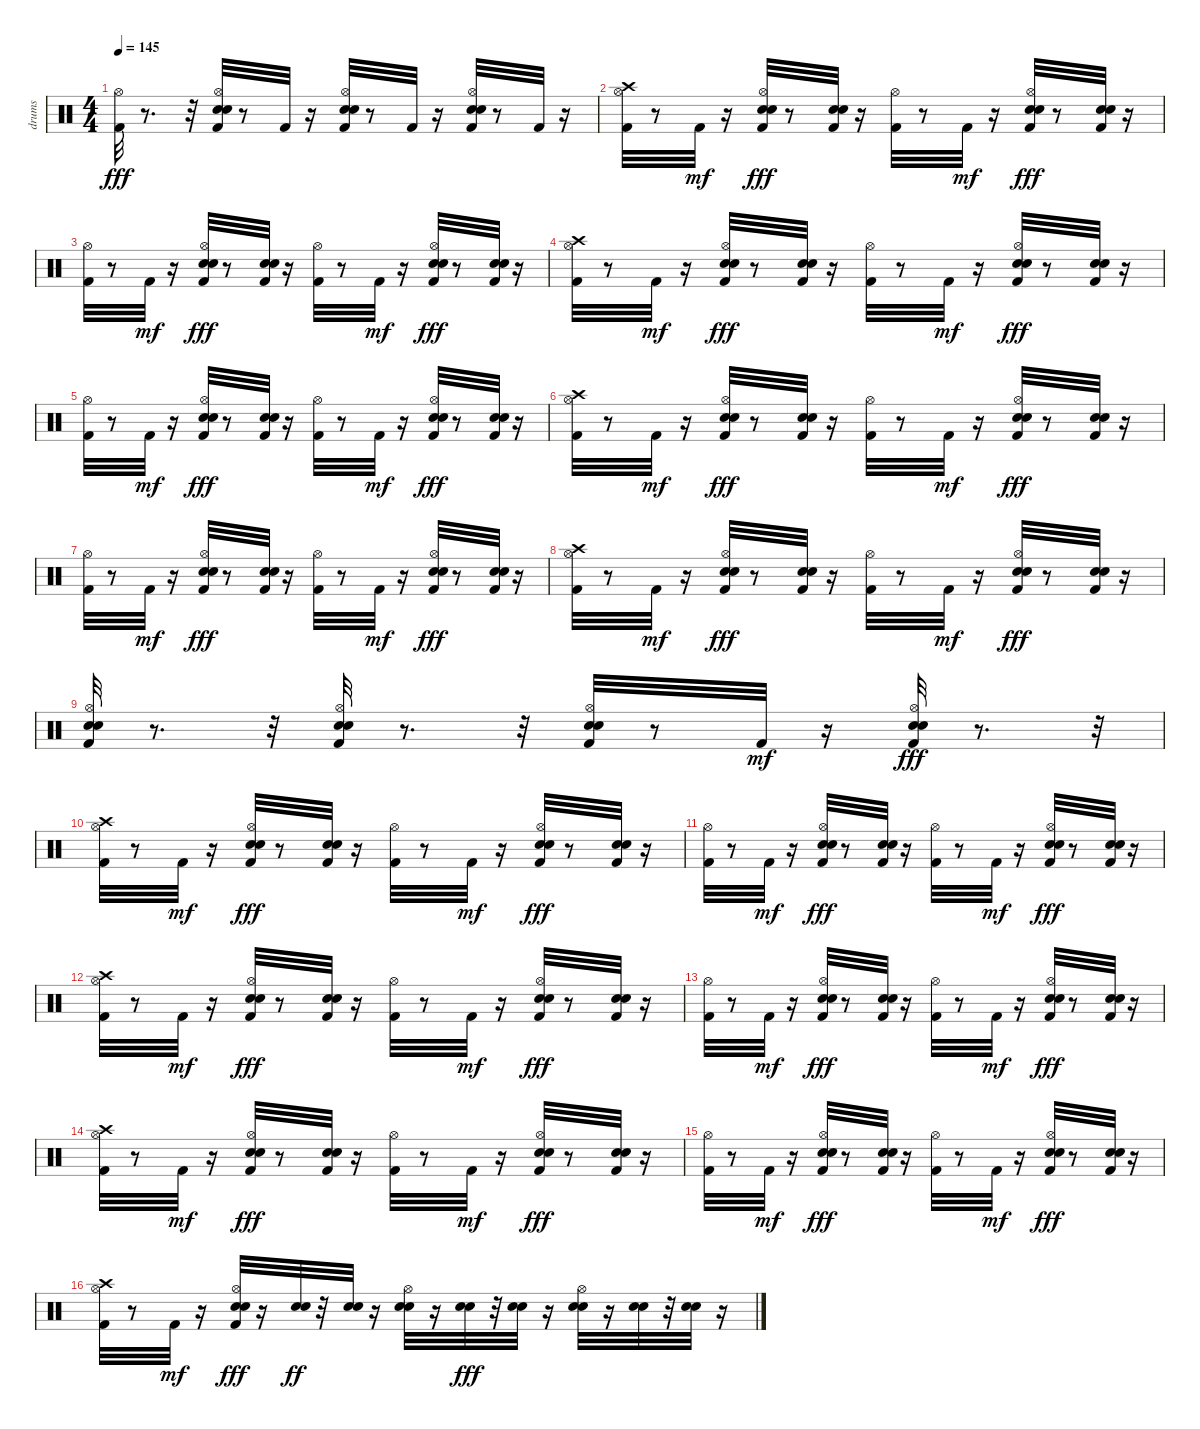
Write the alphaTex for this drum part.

\track ("drums" "drums") {instrument percussion}
\staff {score}
\articulation defaults
\ts (4 4)
\tempo 145
\clef neutral
\ks c
("Kick (hit) 2" "Hi-Hat (open)").32{dy fff} r.8{d} r.32 ("Hi-Hat (open)" "Kick (hit) 2" "Snare (hit) 2" "Electric Snare (hit)").32 r.8 "Kick (hit) 2".32 r.16 ("Hi-Hat (open)" "Kick (hit) 2" "Snare (hit) 2" "Electric Snare (hit)").32 r.8 "Kick (hit) 2".32 r.16 ("Hi-Hat (open)" "Kick (hit) 2" "Snare (hit) 2" "Electric Snare (hit)").32 r.8 "Kick (hit) 2".32 r.16 |
("Hi-Hat (open)" "Crash high (hit)" "Kick (hit) 2").32 r.8 "Kick (hit) 2".32{dy mf} r.16 ("Kick (hit) 2" "Hi-Hat (open)" "Snare (hit) 2" "Electric Snare (hit)").32{dy fff} r.8 ("Kick (hit) 2" "Snare (hit) 2" "Electric Snare (hit)").32 r.16 ("Kick (hit) 2" "Hi-Hat (open)").32 r.8 "Kick (hit) 2".32{dy mf} r.16 ("Kick (hit) 2" "Hi-Hat (open)" "Snare (hit) 2" "Electric Snare (hit)").32{dy fff} r.8 ("Kick (hit) 2" "Snare (hit) 2" "Electric Snare (hit)").32 r.16 |
("Hi-Hat (open)" "Kick (hit) 2").32 r.8 "Kick (hit) 2".32{dy mf} r.16 ("Kick (hit) 2" "Hi-Hat (open)" "Snare (hit) 2" "Electric Snare (hit)").32{dy fff} r.8 ("Kick (hit) 2" "Snare (hit) 2" "Electric Snare (hit)").32 r.16 ("Kick (hit) 2" "Hi-Hat (open)").32 r.8 "Kick (hit) 2".32{dy mf} r.16 ("Kick (hit) 2" "Hi-Hat (open)" "Snare (hit) 2" "Electric Snare (hit)").32{dy fff} r.8 ("Kick (hit) 2" "Snare (hit) 2" "Electric Snare (hit)").32 r.16 |
("Hi-Hat (open)" "Crash high (hit)" "Kick (hit) 2").32 r.8 "Kick (hit) 2".32{dy mf} r.16 ("Kick (hit) 2" "Hi-Hat (open)" "Snare (hit) 2" "Electric Snare (hit)").32{dy fff} r.8 ("Kick (hit) 2" "Snare (hit) 2" "Electric Snare (hit)").32 r.16 ("Kick (hit) 2" "Hi-Hat (open)").32 r.8 "Kick (hit) 2".32{dy mf} r.16 ("Kick (hit) 2" "Hi-Hat (open)" "Snare (hit) 2" "Electric Snare (hit)").32{dy fff} r.8 ("Kick (hit) 2" "Snare (hit) 2" "Electric Snare (hit)").32 r.16 |
("Hi-Hat (open)" "Kick (hit) 2").32 r.8 "Kick (hit) 2".32{dy mf} r.16 ("Kick (hit) 2" "Hi-Hat (open)" "Snare (hit) 2" "Electric Snare (hit)").32{dy fff} r.8 ("Kick (hit) 2" "Snare (hit) 2" "Electric Snare (hit)").32 r.16 ("Kick (hit) 2" "Hi-Hat (open)").32 r.8 "Kick (hit) 2".32{dy mf} r.16 ("Kick (hit) 2" "Hi-Hat (open)" "Snare (hit) 2" "Electric Snare (hit)").32{dy fff} r.8 ("Kick (hit) 2" "Snare (hit) 2" "Electric Snare (hit)").32 r.16 |
("Hi-Hat (open)" "Crash high (hit)" "Kick (hit) 2").32 r.8 "Kick (hit) 2".32{dy mf} r.16 ("Kick (hit) 2" "Hi-Hat (open)" "Snare (hit) 2" "Electric Snare (hit)").32{dy fff} r.8 ("Kick (hit) 2" "Snare (hit) 2" "Electric Snare (hit)").32 r.16 ("Kick (hit) 2" "Hi-Hat (open)").32 r.8 "Kick (hit) 2".32{dy mf} r.16 ("Kick (hit) 2" "Hi-Hat (open)" "Snare (hit) 2" "Electric Snare (hit)").32{dy fff} r.8 ("Kick (hit) 2" "Snare (hit) 2" "Electric Snare (hit)").32 r.16 |
("Hi-Hat (open)" "Kick (hit) 2").32 r.8 "Kick (hit) 2".32{dy mf} r.16 ("Kick (hit) 2" "Hi-Hat (open)" "Snare (hit) 2" "Electric Snare (hit)").32{dy fff} r.8 ("Kick (hit) 2" "Snare (hit) 2" "Electric Snare (hit)").32 r.16 ("Kick (hit) 2" "Hi-Hat (open)").32 r.8 "Kick (hit) 2".32{dy mf} r.16 ("Kick (hit) 2" "Hi-Hat (open)" "Snare (hit) 2" "Electric Snare (hit)").32{dy fff} r.8 ("Kick (hit) 2" "Snare (hit) 2" "Electric Snare (hit)").32 r.16 |
("Hi-Hat (open)" "Crash high (hit)" "Kick (hit) 2").32 r.8 "Kick (hit) 2".32{dy mf} r.16 ("Kick (hit) 2" "Hi-Hat (open)" "Snare (hit) 2" "Electric Snare (hit)").32{dy fff} r.8 ("Kick (hit) 2" "Snare (hit) 2" "Electric Snare (hit)").32 r.16 ("Kick (hit) 2" "Hi-Hat (open)").32 r.8 "Kick (hit) 2".32{dy mf} r.16 ("Kick (hit) 2" "Hi-Hat (open)" "Snare (hit) 2" "Electric Snare (hit)").32{dy fff} r.8 ("Kick (hit) 2" "Snare (hit) 2" "Electric Snare (hit)").32 r.16 |
("Hi-Hat (open)" "Kick (hit) 2" "Electric Snare (hit)" "Snare (hit) 2").32 r.8{d} r.32 ("Kick (hit) 2" "Hi-Hat (open)" "Snare (hit) 2" "Electric Snare (hit)").32 r.8{d} r.32 ("Kick (hit) 2" "Hi-Hat (open)" "Snare (hit) 2" "Electric Snare (hit)").32 r.8 "Kick (hit) 2".32{dy mf} r.16 ("Kick (hit) 2" "Hi-Hat (open)" "Snare (hit) 2" "Electric Snare (hit)").32{dy fff} r.8{d} r.32 |
("Hi-Hat (open)" "Crash high (hit)" "Kick (hit) 2").32 r.8 "Kick (hit) 2".32{dy mf} r.16 ("Kick (hit) 2" "Hi-Hat (open)" "Snare (hit) 2" "Electric Snare (hit)").32{dy fff} r.8 ("Kick (hit) 2" "Snare (hit) 2" "Electric Snare (hit)").32 r.16 ("Kick (hit) 2" "Hi-Hat (open)").32 r.8 "Kick (hit) 2".32{dy mf} r.16 ("Kick (hit) 2" "Hi-Hat (open)" "Snare (hit) 2" "Electric Snare (hit)").32{dy fff} r.8 ("Kick (hit) 2" "Snare (hit) 2" "Electric Snare (hit)").32 r.16 |
("Hi-Hat (open)" "Kick (hit) 2").32 r.8 "Kick (hit) 2".32{dy mf} r.16 ("Kick (hit) 2" "Hi-Hat (open)" "Snare (hit) 2" "Electric Snare (hit)").32{dy fff} r.8 ("Kick (hit) 2" "Snare (hit) 2" "Electric Snare (hit)").32 r.16 ("Kick (hit) 2" "Hi-Hat (open)").32 r.8 "Kick (hit) 2".32{dy mf} r.16 ("Kick (hit) 2" "Hi-Hat (open)" "Snare (hit) 2" "Electric Snare (hit)").32{dy fff} r.8 ("Kick (hit) 2" "Snare (hit) 2" "Electric Snare (hit)").32 r.16 |
("Hi-Hat (open)" "Crash high (hit)" "Kick (hit) 2").32 r.8 "Kick (hit) 2".32{dy mf} r.16 ("Kick (hit) 2" "Hi-Hat (open)" "Snare (hit) 2" "Electric Snare (hit)").32{dy fff} r.8 ("Kick (hit) 2" "Snare (hit) 2" "Electric Snare (hit)").32 r.16 ("Kick (hit) 2" "Hi-Hat (open)").32 r.8 "Kick (hit) 2".32{dy mf} r.16 ("Kick (hit) 2" "Hi-Hat (open)" "Snare (hit) 2" "Electric Snare (hit)").32{dy fff} r.8 ("Kick (hit) 2" "Snare (hit) 2" "Electric Snare (hit)").32 r.16 |
("Hi-Hat (open)" "Kick (hit) 2").32 r.8 "Kick (hit) 2".32{dy mf} r.16 ("Kick (hit) 2" "Hi-Hat (open)" "Snare (hit) 2" "Electric Snare (hit)").32{dy fff} r.8 ("Kick (hit) 2" "Snare (hit) 2" "Electric Snare (hit)").32 r.16 ("Kick (hit) 2" "Hi-Hat (open)").32 r.8 "Kick (hit) 2".32{dy mf} r.16 ("Kick (hit) 2" "Hi-Hat (open)" "Snare (hit) 2" "Electric Snare (hit)").32{dy fff} r.8 ("Kick (hit) 2" "Snare (hit) 2" "Electric Snare (hit)").32 r.16 |
("Hi-Hat (open)" "Crash high (hit)" "Kick (hit) 2").32 r.8 "Kick (hit) 2".32{dy mf} r.16 ("Kick (hit) 2" "Hi-Hat (open)" "Snare (hit) 2" "Electric Snare (hit)").32{dy fff} r.8 ("Kick (hit) 2" "Snare (hit) 2" "Electric Snare (hit)").32 r.16 ("Kick (hit) 2" "Hi-Hat (open)").32 r.8 "Kick (hit) 2".32{dy mf} r.16 ("Kick (hit) 2" "Hi-Hat (open)" "Snare (hit) 2" "Electric Snare (hit)").32{dy fff} r.8 ("Kick (hit) 2" "Snare (hit) 2" "Electric Snare (hit)").32 r.16 |
("Hi-Hat (open)" "Kick (hit) 2").32 r.8 "Kick (hit) 2".32{dy mf} r.16 ("Kick (hit) 2" "Hi-Hat (open)" "Snare (hit) 2" "Electric Snare (hit)").32{dy fff} r.8 ("Kick (hit) 2" "Snare (hit) 2" "Electric Snare (hit)").32 r.16 ("Kick (hit) 2" "Hi-Hat (open)").32 r.8 "Kick (hit) 2".32{dy mf} r.16 ("Kick (hit) 2" "Hi-Hat (open)" "Snare (hit) 2" "Electric Snare (hit)").32{dy fff} r.8 ("Kick (hit) 2" "Snare (hit) 2" "Electric Snare (hit)").32 r.16 |
("Hi-Hat (open)" "Crash high (hit)" "Kick (hit) 2").32 r.8 "Kick (hit) 2".32{dy mf} r.16 ("Hi-Hat (open)" "Electric Snare (hit)" "Snare (hit) 2" "Kick (hit) 2").32{dy fff} r.16 ("Electric Snare (hit)" "Snare (hit) 2").32{dy ff} r.32 ("Electric Snare (hit)" "Snare (hit) 2").32 r.16 ("Hi-Hat (open)" "Electric Snare (hit)" "Snare (hit) 2").32 r.16 ("Snare (hit) 2" "Electric Snare (hit)").32{dy fff} r.32 ("Snare (hit) 2" "Electric Snare (hit)").32 r.16 ("Hi-Hat (open)" "Snare (hit) 2" "Electric Snare (hit)").32 r.16 ("Snare (hit) 2" "Electric Snare (hit)").32 r.32 ("Snare (hit) 2" "Electric Snare (hit)").32 r.16
